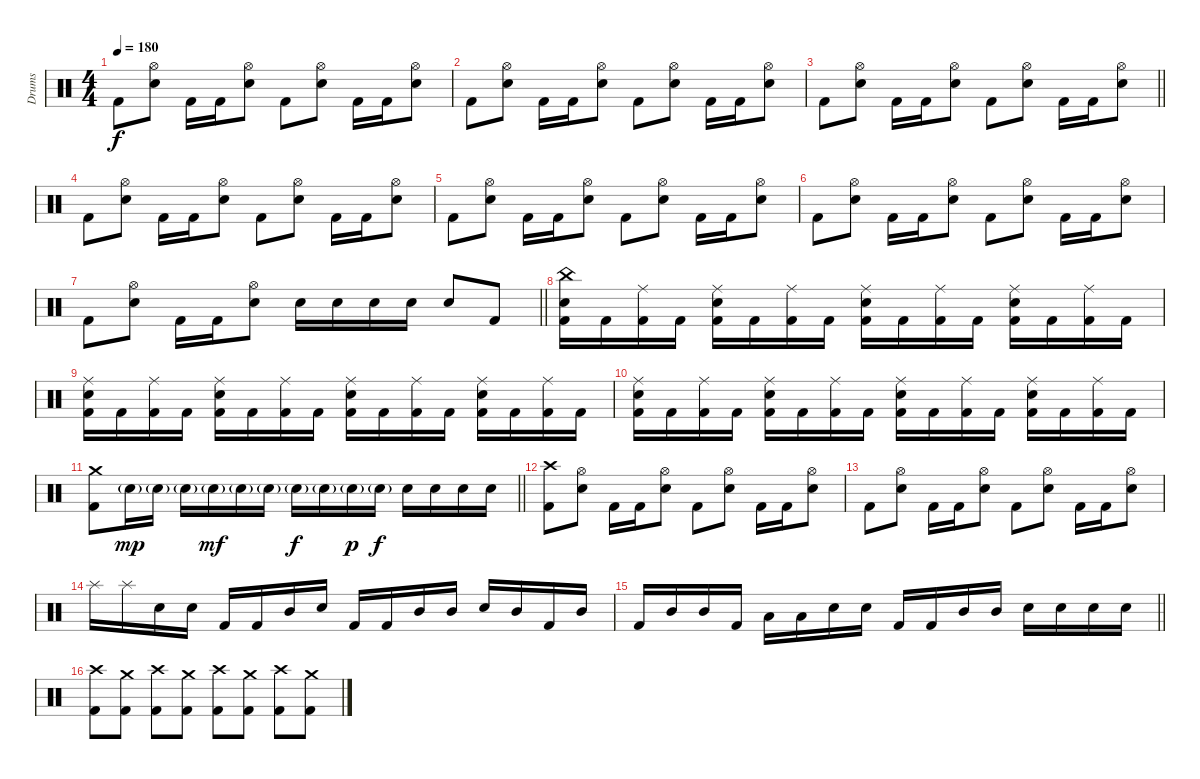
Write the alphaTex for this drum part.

\track ("Drums" "Drums") {instrument percussion}
\staff {score}
\articulation defaults
\ts (4 4)
\tempo 180
\clef neutral
\ks c "Kick (hit) 2".8{dy f}
("Hi-Hat (open)" "Electric Snare (hit)").8 "Kick (hit) 2".16 "Kick (hit) 2".16 ("Hi-Hat (open)" "Electric Snare (hit)").8 "Kick (hit) 2".8 ("Hi-Hat (open)" "Electric Snare (hit)").8 "Kick (hit) 2".16 "Kick (hit) 2".16 ("Hi-Hat (open)" "Electric Snare (hit)").8 |
"Kick (hit) 2".8 ("Hi-Hat (open)" "Electric Snare (hit)").8 "Kick (hit) 2".16 "Kick (hit) 2".16 ("Hi-Hat (open)" "Electric Snare (hit)").8 "Kick (hit) 2".8 ("Hi-Hat (open)" "Electric Snare (hit)").8 "Kick (hit) 2".16 "Kick (hit) 2".16 ("Hi-Hat (open)" "Electric Snare (hit)").8 |
\barLineRight lightlight "Kick (hit) 2".8
("Hi-Hat (open)" "Electric Snare (hit)").8 "Kick (hit) 2".16 "Kick (hit) 2".16 ("Hi-Hat (open)" "Electric Snare (hit)").8 "Kick (hit) 2".8 ("Hi-Hat (open)" "Electric Snare (hit)").8 "Kick (hit) 2".16 "Kick (hit) 2".16 ("Hi-Hat (open)" "Electric Snare (hit)").8 |
"Kick (hit) 2".8 ("Hi-Hat (open)" "Electric Snare (hit)").8 "Kick (hit) 2".16 "Kick (hit) 2".16 ("Hi-Hat (open)" "Electric Snare (hit)").8 "Kick (hit) 2".8 ("Hi-Hat (open)" "Electric Snare (hit)").8 "Kick (hit) 2".16 "Kick (hit) 2".16 ("Hi-Hat (open)" "Electric Snare (hit)").8 |
"Kick (hit) 2".8 ("Hi-Hat (open)" "Electric Snare (hit)").8 "Kick (hit) 2".16 "Kick (hit) 2".16 ("Hi-Hat (open)" "Electric Snare (hit)").8 "Kick (hit) 2".8 ("Hi-Hat (open)" "Electric Snare (hit)").8 "Kick (hit) 2".16 "Kick (hit) 2".16 ("Hi-Hat (open)" "Electric Snare (hit)").8 |
"Kick (hit) 2".8 ("Hi-Hat (open)" "Electric Snare (hit)").8 "Kick (hit) 2".16 "Kick (hit) 2".16 ("Hi-Hat (open)" "Electric Snare (hit)").8 "Kick (hit) 2".8 ("Hi-Hat (open)" "Electric Snare (hit)").8 "Kick (hit) 2".16 "Kick (hit) 2".16 ("Hi-Hat (open)" "Electric Snare (hit)").8 |
\barLineRight lightlight "Kick (hit) 2".8
("Hi-Hat (open)" "Electric Snare (hit)").8 "Kick (hit) 2".16 "Kick (hit) 2".16 ("Hi-Hat (open)" "Electric Snare (hit)").8 "Electric Snare (hit)".16 "Electric Snare (hit)".16 "Electric Snare (hit)".16 "Electric Snare (hit)".16 "Electric Snare (hit)".8 "Kick (hit) 2".8 |
("China (hit)" "Electric Snare (hit)" "Kick (hit) 2").16 "Kick (hit) 2".16 ("Ride (middle)" "Kick (hit) 2").16 "Kick (hit) 2".16 ("Ride (middle)" "Electric Snare (hit)" "Kick (hit) 2").16 "Kick (hit) 2".16 ("Ride (middle)" "Kick (hit) 2").16 "Kick (hit) 2".16 ("Ride (middle)" "Electric Snare (hit)" "Kick (hit) 2").16 "Kick (hit) 2".16 ("Ride (middle)" "Kick (hit) 2").16 "Kick (hit) 2".16 ("Ride (middle)" "Electric Snare (hit)" "Kick (hit) 2").16 "Kick (hit) 2".16 ("Ride (middle)" "Kick (hit) 2").16 "Kick (hit) 2".16 |
("Ride (middle)" "Electric Snare (hit)" "Kick (hit) 2").16 "Kick (hit) 2".16 ("Ride (middle)" "Kick (hit) 2").16 "Kick (hit) 2".16 ("Ride (middle)" "Electric Snare (hit)" "Kick (hit) 2").16 "Kick (hit) 2".16 ("Ride (middle)" "Kick (hit) 2").16 "Kick (hit) 2".16 ("Ride (middle)" "Electric Snare (hit)" "Kick (hit) 2").16 "Kick (hit) 2".16 ("Ride (middle)" "Kick (hit) 2").16 "Kick (hit) 2".16 ("Ride (middle)" "Electric Snare (hit)" "Kick (hit) 2").16 "Kick (hit) 2".16 ("Ride (middle)" "Kick (hit) 2").16 "Kick (hit) 2".16 |
("Ride (middle)" "Electric Snare (hit)" "Kick (hit) 2").16 "Kick (hit) 2".16 ("Ride (middle)" "Kick (hit) 2").16 "Kick (hit) 2".16 ("Ride (middle)" "Electric Snare (hit)" "Kick (hit) 2").16 "Kick (hit) 2".16 ("Ride (middle)" "Kick (hit) 2").16 "Kick (hit) 2".16 ("Ride (middle)" "Electric Snare (hit)" "Kick (hit) 2").16 "Kick (hit) 2".16 ("Ride (middle)" "Kick (hit) 2").16 "Kick (hit) 2".16 ("Ride (middle)" "Electric Snare (hit)" "Kick (hit) 2").16 "Kick (hit) 2".16 ("Ride (middle)" "Kick (hit) 2").16 "Kick (hit) 2".16 |
\barLineRight lightlight
("Crash medium (hit)" "Kick (hit) 2").8 "Electric Snare (hit)"{g}.16{dy mp} "Electric Snare (hit)"{g}.16 "Electric Snare (hit)"{g}.16 "Electric Snare (hit)"{g}.16{dy mf} "Electric Snare (hit)"{g}.16 "Electric Snare (hit)"{g}.16 "Electric Snare (hit)"{g}.16{dy f} "Electric Snare (hit)"{g}.16 "Electric Snare (hit)"{g}.16{dy p} "Electric Snare (hit)"{g}.16{dy f} "Electric Snare (hit)".16 "Electric Snare (hit)".16 "Electric Snare (hit)".16 "Electric Snare (hit)".16 |
("Crash high (hit)" "Kick (hit) 2").8 ("Hi-Hat (open)" "Electric Snare (hit)").8 "Kick (hit) 2".16 "Kick (hit) 2".16 ("Hi-Hat (open)" "Electric Snare (hit)").8 "Kick (hit) 2".8 ("Hi-Hat (open)" "Electric Snare (hit)").8 "Kick (hit) 2".16 "Kick (hit) 2".16 ("Hi-Hat (open)" "Electric Snare (hit)").8 |
"Kick (hit) 2".8 ("Hi-Hat (open)" "Electric Snare (hit)").8 "Kick (hit) 2".16 "Kick (hit) 2".16 ("Hi-Hat (open)" "Electric Snare (hit)").8 "Kick (hit) 2".8 ("Hi-Hat (open)" "Electric Snare (hit)").8 "Kick (hit) 2".16 "Kick (hit) 2".16 ("Hi-Hat (open)" "Electric Snare (hit)").8 |
"Splash (hit)".16 "Splash (hit)".16 "Electric Snare (hit)".16 "Electric Snare (hit)".16 "Kick (hit) 2".16 "Kick (hit) 2".16 "Mid Tom (hit)".16 "Electric Snare (hit)".16 "Kick (hit) 2".16 "Kick (hit) 2".16 "Mid Tom (hit)".16 "Mid Tom (hit)".16 "Electric Snare (hit)".16 "Mid Tom (hit)".16 "Kick (hit) 2".16 "Mid Tom (hit)".16 |
\barLineRight lightlight "Kick (hit) 2".16 "Mid Tom (hit)".16 "Mid Tom (hit)".16 "Kick (hit) 2".16 "Low Tom (hit)".16 "Low Tom (hit)".16 "Electric Snare (hit)".16 "Electric Snare (hit)".16 "Kick (hit) 2".16 "Kick (hit) 2".16 "Mid Tom (hit)".16 "Mid Tom (hit)".16 "Electric Snare (hit)".16 "Electric Snare (hit)".16 "Electric Snare (hit)".16 "Electric Snare (hit)".16
|
("Crash high (hit)" "Kick (hit) 2").8 ("Crash medium (hit)" "Kick (hit) 2").8 ("Crash high (hit)" "Kick (hit) 2").8 ("Crash medium (hit)" "Kick (hit) 2").8 ("Crash high (hit)" "Kick (hit) 2").8 ("Crash medium (hit)" "Kick (hit) 2").8 ("Crash high (hit)" "Kick (hit) 2").8 ("Crash medium (hit)" "Kick (hit) 2").8
